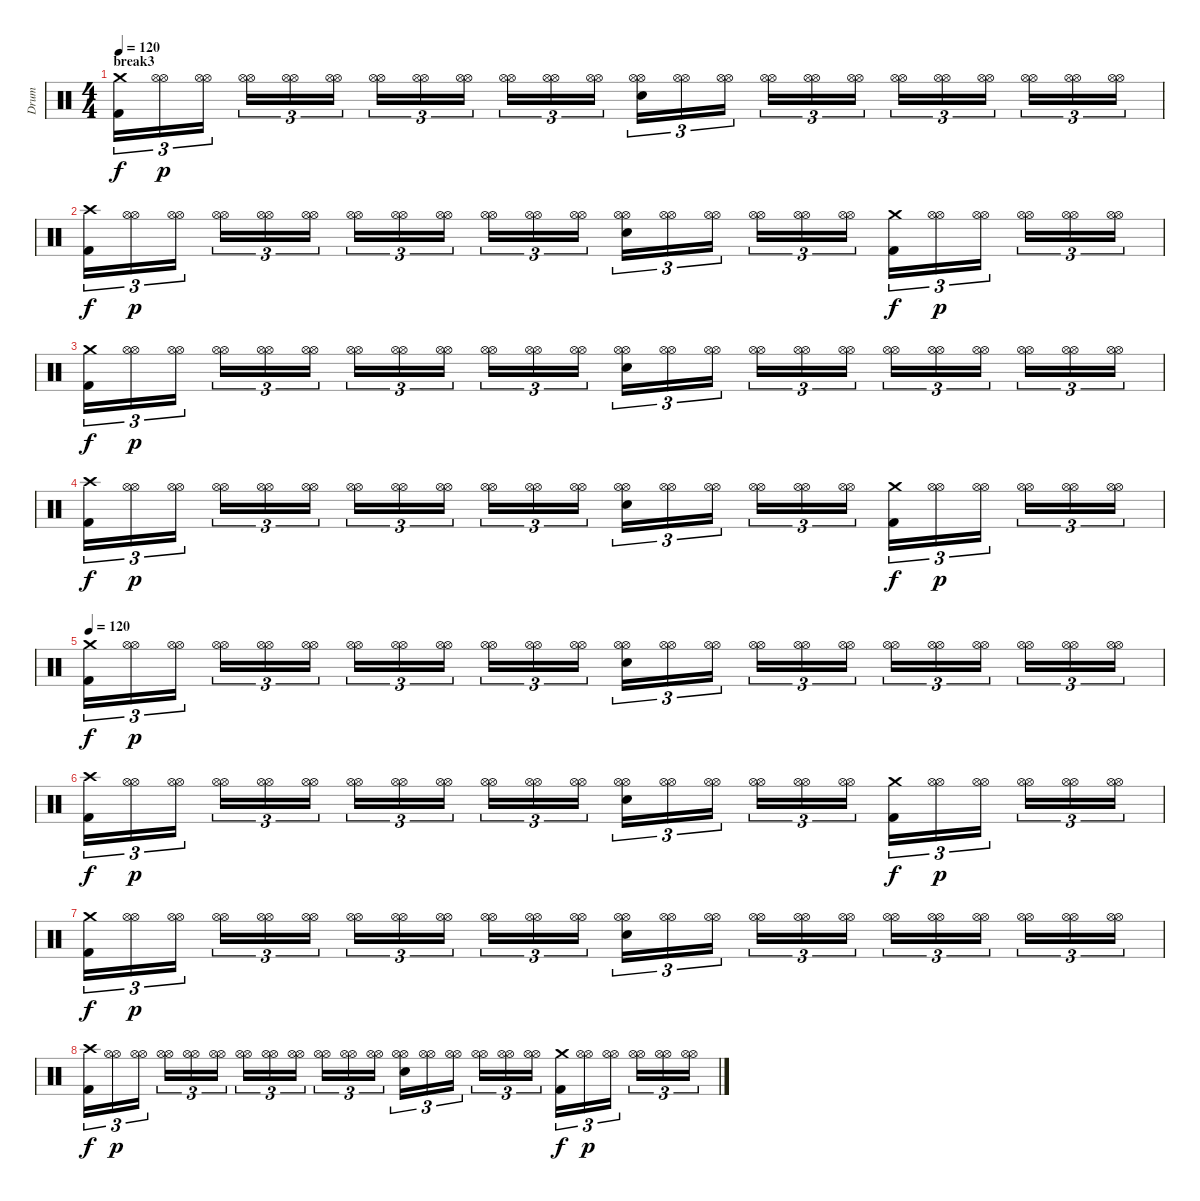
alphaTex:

\track ("Drum" "Drum") {instrument percussion}
\staff {score}
\articulation defaults
\ts (4 4)
\section ("" "break3")
\tempo 120
\clef neutral
\ks c
("Crash medium (hit)" "Kick (hit) 2").16{tu (3 2) dy f} ("Hi-Hat (open)" "Hi-Hat (open)").16{tu (3 2) dy p} ("Hi-Hat (open)" "Hi-Hat (open)").16{tu (3 2)} ("Hi-Hat (open)" "Hi-Hat (open)").16{tu (3 2)} ("Hi-Hat (open)" "Hi-Hat (open)").16{tu (3 2)} ("Hi-Hat (open)" "Hi-Hat (open)").16{tu (3 2)} ("Hi-Hat (open)" "Hi-Hat (open)").16{tu (3 2)} ("Hi-Hat (open)" "Hi-Hat (open)").16{tu (3 2)} ("Hi-Hat (open)" "Hi-Hat (open)").16{tu (3 2)} ("Hi-Hat (open)" "Hi-Hat (open)").16{tu (3 2)} ("Hi-Hat (open)" "Hi-Hat (open)").16{tu (3 2)} ("Hi-Hat (open)" "Hi-Hat (open)").16{tu (3 2)} ("Hi-Hat (open)" "Hi-Hat (open)" "Snare (hit) 2").16{tu (3 2)} ("Hi-Hat (open)" "Hi-Hat (open)").16{tu (3 2)} ("Hi-Hat (open)" "Hi-Hat (open)").16{tu (3 2)} ("Hi-Hat (open)" "Hi-Hat (open)").16{tu (3 2)} ("Hi-Hat (open)" "Hi-Hat (open)").16{tu (3 2)} ("Hi-Hat (open)" "Hi-Hat (open)").16{tu (3 2)} ("Hi-Hat (open)" "Hi-Hat (open)").16{tu (3 2)} ("Hi-Hat (open)" "Hi-Hat (open)").16{tu (3 2)} ("Hi-Hat (open)" "Hi-Hat (open)").16{tu (3 2)} ("Hi-Hat (open)" "Hi-Hat (open)").16{tu (3 2)} ("Hi-Hat (open)" "Hi-Hat (open)").16{tu (3 2)} ("Hi-Hat (open)" "Hi-Hat (open)").16{tu (3 2)} |
("Crash high (hit)" "Kick (hit) 2").16{tu (3 2) dy f} ("Hi-Hat (open)" "Hi-Hat (open)").16{tu (3 2) dy p} ("Hi-Hat (open)" "Hi-Hat (open)").16{tu (3 2)} ("Hi-Hat (open)" "Hi-Hat (open)").16{tu (3 2)} ("Hi-Hat (open)" "Hi-Hat (open)").16{tu (3 2)} ("Hi-Hat (open)" "Hi-Hat (open)").16{tu (3 2)} ("Hi-Hat (open)" "Hi-Hat (open)").16{tu (3 2)} ("Hi-Hat (open)" "Hi-Hat (open)").16{tu (3 2)} ("Hi-Hat (open)" "Hi-Hat (open)").16{tu (3 2)} ("Hi-Hat (open)" "Hi-Hat (open)").16{tu (3 2)} ("Hi-Hat (open)" "Hi-Hat (open)").16{tu (3 2)} ("Hi-Hat (open)" "Hi-Hat (open)").16{tu (3 2)} ("Hi-Hat (open)" "Hi-Hat (open)" "Snare (hit) 2").16{tu (3 2)} ("Hi-Hat (open)" "Hi-Hat (open)").16{tu (3 2)} ("Hi-Hat (open)" "Hi-Hat (open)").16{tu (3 2)} ("Hi-Hat (open)" "Hi-Hat (open)").16{tu (3 2)} ("Hi-Hat (open)" "Hi-Hat (open)").16{tu (3 2)} ("Hi-Hat (open)" "Hi-Hat (open)").16{tu (3 2)} ("Crash medium (hit)" "Kick (hit) 2").16{tu (3 2) dy f} ("Hi-Hat (open)" "Hi-Hat (open)").16{tu (3 2) dy p} ("Hi-Hat (open)" "Hi-Hat (open)").16{tu (3 2)} ("Hi-Hat (open)" "Hi-Hat (open)").16{tu (3 2)} ("Hi-Hat (open)" "Hi-Hat (open)").16{tu (3 2)} ("Hi-Hat (open)" "Hi-Hat (open)").16{tu (3 2)} |
("Crash medium (hit)" "Kick (hit) 2").16{tu (3 2) dy f} ("Hi-Hat (open)" "Hi-Hat (open)").16{tu (3 2) dy p} ("Hi-Hat (open)" "Hi-Hat (open)").16{tu (3 2)} ("Hi-Hat (open)" "Hi-Hat (open)").16{tu (3 2)} ("Hi-Hat (open)" "Hi-Hat (open)").16{tu (3 2)} ("Hi-Hat (open)" "Hi-Hat (open)").16{tu (3 2)} ("Hi-Hat (open)" "Hi-Hat (open)").16{tu (3 2)} ("Hi-Hat (open)" "Hi-Hat (open)").16{tu (3 2)} ("Hi-Hat (open)" "Hi-Hat (open)").16{tu (3 2)} ("Hi-Hat (open)" "Hi-Hat (open)").16{tu (3 2)} ("Hi-Hat (open)" "Hi-Hat (open)").16{tu (3 2)} ("Hi-Hat (open)" "Hi-Hat (open)").16{tu (3 2)} ("Hi-Hat (open)" "Hi-Hat (open)" "Snare (hit) 2").16{tu (3 2)} ("Hi-Hat (open)" "Hi-Hat (open)").16{tu (3 2)} ("Hi-Hat (open)" "Hi-Hat (open)").16{tu (3 2)} ("Hi-Hat (open)" "Hi-Hat (open)").16{tu (3 2)} ("Hi-Hat (open)" "Hi-Hat (open)").16{tu (3 2)} ("Hi-Hat (open)" "Hi-Hat (open)").16{tu (3 2)} ("Hi-Hat (open)" "Hi-Hat (open)").16{tu (3 2)} ("Hi-Hat (open)" "Hi-Hat (open)").16{tu (3 2)} ("Hi-Hat (open)" "Hi-Hat (open)").16{tu (3 2)} ("Hi-Hat (open)" "Hi-Hat (open)").16{tu (3 2)} ("Hi-Hat (open)" "Hi-Hat (open)").16{tu (3 2)} ("Hi-Hat (open)" "Hi-Hat (open)").16{tu (3 2)} |
("Crash high (hit)" "Kick (hit) 2").16{tu (3 2) dy f} ("Hi-Hat (open)" "Hi-Hat (open)").16{tu (3 2) dy p} ("Hi-Hat (open)" "Hi-Hat (open)").16{tu (3 2)} ("Hi-Hat (open)" "Hi-Hat (open)").16{tu (3 2)} ("Hi-Hat (open)" "Hi-Hat (open)").16{tu (3 2)} ("Hi-Hat (open)" "Hi-Hat (open)").16{tu (3 2)} ("Hi-Hat (open)" "Hi-Hat (open)").16{tu (3 2)} ("Hi-Hat (open)" "Hi-Hat (open)").16{tu (3 2)} ("Hi-Hat (open)" "Hi-Hat (open)").16{tu (3 2)} ("Hi-Hat (open)" "Hi-Hat (open)").16{tu (3 2)} ("Hi-Hat (open)" "Hi-Hat (open)").16{tu (3 2)} ("Hi-Hat (open)" "Hi-Hat (open)").16{tu (3 2)} ("Hi-Hat (open)" "Hi-Hat (open)" "Snare (hit) 2").16{tu (3 2)} ("Hi-Hat (open)" "Hi-Hat (open)").16{tu (3 2)} ("Hi-Hat (open)" "Hi-Hat (open)").16{tu (3 2)} ("Hi-Hat (open)" "Hi-Hat (open)").16{tu (3 2)} ("Hi-Hat (open)" "Hi-Hat (open)").16{tu (3 2)} ("Hi-Hat (open)" "Hi-Hat (open)").16{tu (3 2)} ("Crash medium (hit)" "Kick (hit) 2").16{tu (3 2) dy f} ("Hi-Hat (open)" "Hi-Hat (open)").16{tu (3 2) dy p} ("Hi-Hat (open)" "Hi-Hat (open)").16{tu (3 2)} ("Hi-Hat (open)" "Hi-Hat (open)").16{tu (3 2)} ("Hi-Hat (open)" "Hi-Hat (open)").16{tu (3 2)} ("Hi-Hat (open)" "Hi-Hat (open)").16{tu (3 2)} |
\tempo 120
("Crash medium (hit)" "Kick (hit) 2").16{tu (3 2) dy f} ("Hi-Hat (open)" "Hi-Hat (open)").16{tu (3 2) dy p} ("Hi-Hat (open)" "Hi-Hat (open)").16{tu (3 2)} ("Hi-Hat (open)" "Hi-Hat (open)").16{tu (3 2)} ("Hi-Hat (open)" "Hi-Hat (open)").16{tu (3 2)} ("Hi-Hat (open)" "Hi-Hat (open)").16{tu (3 2)} ("Hi-Hat (open)" "Hi-Hat (open)").16{tu (3 2)} ("Hi-Hat (open)" "Hi-Hat (open)").16{tu (3 2)} ("Hi-Hat (open)" "Hi-Hat (open)").16{tu (3 2)} ("Hi-Hat (open)" "Hi-Hat (open)").16{tu (3 2)} ("Hi-Hat (open)" "Hi-Hat (open)").16{tu (3 2)} ("Hi-Hat (open)" "Hi-Hat (open)").16{tu (3 2)} ("Hi-Hat (open)" "Hi-Hat (open)" "Snare (hit) 2").16{tu (3 2)} ("Hi-Hat (open)" "Hi-Hat (open)").16{tu (3 2)} ("Hi-Hat (open)" "Hi-Hat (open)").16{tu (3 2)} ("Hi-Hat (open)" "Hi-Hat (open)").16{tu (3 2)} ("Hi-Hat (open)" "Hi-Hat (open)").16{tu (3 2)} ("Hi-Hat (open)" "Hi-Hat (open)").16{tu (3 2)} ("Hi-Hat (open)" "Hi-Hat (open)").16{tu (3 2)} ("Hi-Hat (open)" "Hi-Hat (open)").16{tu (3 2)} ("Hi-Hat (open)" "Hi-Hat (open)").16{tu (3 2)} ("Hi-Hat (open)" "Hi-Hat (open)").16{tu (3 2)} ("Hi-Hat (open)" "Hi-Hat (open)").16{tu (3 2)} ("Hi-Hat (open)" "Hi-Hat (open)").16{tu (3 2)} |
("Crash high (hit)" "Kick (hit) 2").16{tu (3 2) dy f} ("Hi-Hat (open)" "Hi-Hat (open)").16{tu (3 2) dy p} ("Hi-Hat (open)" "Hi-Hat (open)").16{tu (3 2)} ("Hi-Hat (open)" "Hi-Hat (open)").16{tu (3 2)} ("Hi-Hat (open)" "Hi-Hat (open)").16{tu (3 2)} ("Hi-Hat (open)" "Hi-Hat (open)").16{tu (3 2)} ("Hi-Hat (open)" "Hi-Hat (open)").16{tu (3 2)} ("Hi-Hat (open)" "Hi-Hat (open)").16{tu (3 2)} ("Hi-Hat (open)" "Hi-Hat (open)").16{tu (3 2)} ("Hi-Hat (open)" "Hi-Hat (open)").16{tu (3 2)} ("Hi-Hat (open)" "Hi-Hat (open)").16{tu (3 2)} ("Hi-Hat (open)" "Hi-Hat (open)").16{tu (3 2)} ("Hi-Hat (open)" "Hi-Hat (open)" "Snare (hit) 2").16{tu (3 2)} ("Hi-Hat (open)" "Hi-Hat (open)").16{tu (3 2)} ("Hi-Hat (open)" "Hi-Hat (open)").16{tu (3 2)} ("Hi-Hat (open)" "Hi-Hat (open)").16{tu (3 2)} ("Hi-Hat (open)" "Hi-Hat (open)").16{tu (3 2)} ("Hi-Hat (open)" "Hi-Hat (open)").16{tu (3 2)} ("Crash medium (hit)" "Kick (hit) 2").16{tu (3 2) dy f} ("Hi-Hat (open)" "Hi-Hat (open)").16{tu (3 2) dy p} ("Hi-Hat (open)" "Hi-Hat (open)").16{tu (3 2)} ("Hi-Hat (open)" "Hi-Hat (open)").16{tu (3 2)} ("Hi-Hat (open)" "Hi-Hat (open)").16{tu (3 2)} ("Hi-Hat (open)" "Hi-Hat (open)").16{tu (3 2)} |
("Crash medium (hit)" "Kick (hit) 2").16{tu (3 2) dy f} ("Hi-Hat (open)" "Hi-Hat (open)").16{tu (3 2) dy p} ("Hi-Hat (open)" "Hi-Hat (open)").16{tu (3 2)} ("Hi-Hat (open)" "Hi-Hat (open)").16{tu (3 2)} ("Hi-Hat (open)" "Hi-Hat (open)").16{tu (3 2)} ("Hi-Hat (open)" "Hi-Hat (open)").16{tu (3 2)} ("Hi-Hat (open)" "Hi-Hat (open)").16{tu (3 2)} ("Hi-Hat (open)" "Hi-Hat (open)").16{tu (3 2)} ("Hi-Hat (open)" "Hi-Hat (open)").16{tu (3 2)} ("Hi-Hat (open)" "Hi-Hat (open)").16{tu (3 2)} ("Hi-Hat (open)" "Hi-Hat (open)").16{tu (3 2)} ("Hi-Hat (open)" "Hi-Hat (open)").16{tu (3 2)} ("Hi-Hat (open)" "Hi-Hat (open)" "Snare (hit) 2").16{tu (3 2)} ("Hi-Hat (open)" "Hi-Hat (open)").16{tu (3 2)} ("Hi-Hat (open)" "Hi-Hat (open)").16{tu (3 2)} ("Hi-Hat (open)" "Hi-Hat (open)").16{tu (3 2)} ("Hi-Hat (open)" "Hi-Hat (open)").16{tu (3 2)} ("Hi-Hat (open)" "Hi-Hat (open)").16{tu (3 2)} ("Hi-Hat (open)" "Hi-Hat (open)").16{tu (3 2)} ("Hi-Hat (open)" "Hi-Hat (open)").16{tu (3 2)} ("Hi-Hat (open)" "Hi-Hat (open)").16{tu (3 2)} ("Hi-Hat (open)" "Hi-Hat (open)").16{tu (3 2)} ("Hi-Hat (open)" "Hi-Hat (open)").16{tu (3 2)} ("Hi-Hat (open)" "Hi-Hat (open)").16{tu (3 2)} |
("Crash high (hit)" "Kick (hit) 2").16{tu (3 2) dy f} ("Hi-Hat (open)" "Hi-Hat (open)").16{tu (3 2) dy p} ("Hi-Hat (open)" "Hi-Hat (open)").16{tu (3 2)} ("Hi-Hat (open)" "Hi-Hat (open)").16{tu (3 2)} ("Hi-Hat (open)" "Hi-Hat (open)").16{tu (3 2)} ("Hi-Hat (open)" "Hi-Hat (open)").16{tu (3 2)} ("Hi-Hat (open)" "Hi-Hat (open)").16{tu (3 2)} ("Hi-Hat (open)" "Hi-Hat (open)").16{tu (3 2)} ("Hi-Hat (open)" "Hi-Hat (open)").16{tu (3 2)} ("Hi-Hat (open)" "Hi-Hat (open)").16{tu (3 2)} ("Hi-Hat (open)" "Hi-Hat (open)").16{tu (3 2)} ("Hi-Hat (open)" "Hi-Hat (open)").16{tu (3 2)} ("Hi-Hat (open)" "Hi-Hat (open)" "Snare (hit) 2").16{tu (3 2)} ("Hi-Hat (open)" "Hi-Hat (open)").16{tu (3 2)} ("Hi-Hat (open)" "Hi-Hat (open)").16{tu (3 2)} ("Hi-Hat (open)" "Hi-Hat (open)").16{tu (3 2)} ("Hi-Hat (open)" "Hi-Hat (open)").16{tu (3 2)} ("Hi-Hat (open)" "Hi-Hat (open)").16{tu (3 2)} ("Crash medium (hit)" "Kick (hit) 2").16{tu (3 2) dy f} ("Hi-Hat (open)" "Hi-Hat (open)").16{tu (3 2) dy p} ("Hi-Hat (open)" "Hi-Hat (open)").16{tu (3 2)} ("Hi-Hat (open)" "Hi-Hat (open)").16{tu (3 2)} ("Hi-Hat (open)" "Hi-Hat (open)").16{tu (3 2)} ("Hi-Hat (open)" "Hi-Hat (open)").16{tu (3 2)}
